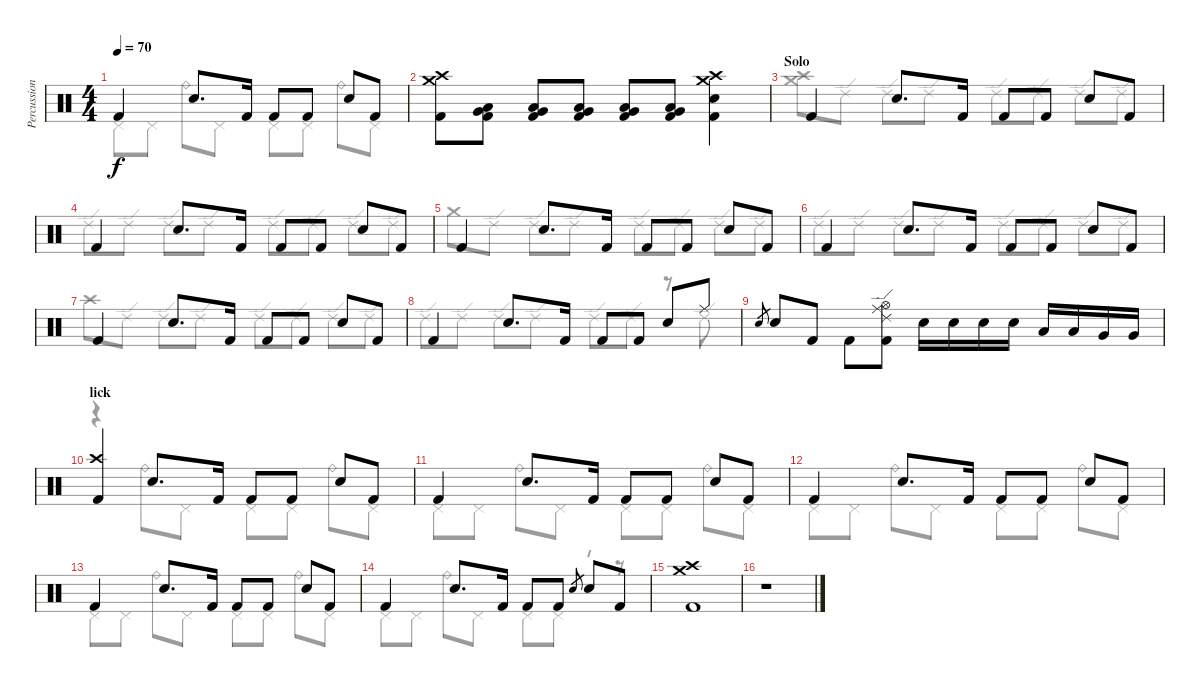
\track ("Percussion" "Percussion") {instrument percussion}
\staff {score}
\articulation defaults
\voice
\ts (4 4)
\tempo 70
\clef neutral
\ks c "Kick (hit) 2".4{dy f} "Snare (hit) 2".8{d} "Kick (hit) 2".16 "Kick (hit) 2".8 "Kick (hit) 2".8 "Snare (hit) 2".8 "Kick (hit) 2".8
|
("Crash high (hit)" "Crash medium (hit)" "Kick (hit) 2").8 ("Kick (hit) 2" "Low Tom (hit)" "Very Low Tom (hit)").8 ("Kick (hit) 2" "Low Tom (hit)" "Very Low Tom (hit)").8 ("Kick (hit) 2" "Low Tom (hit)" "Very Low Tom (hit)").8 ("Kick (hit) 2" "Low Tom (hit)" "Very Low Tom (hit)").8 ("Kick (hit) 2" "Low Tom (hit)" "Very Low Tom (hit)").8 ("Crash high (hit)" "Crash medium (hit)" "Kick (hit) 2" "Snare (hit) 2").4 |
\section ("" "Solo")
"Kick (hit) 2".4 "Snare (hit) 2".8{d} "Kick (hit) 2".16 "Kick (hit) 2".8 "Kick (hit) 2".8 "Snare (hit) 2".8 "Kick (hit) 2".8 |
"Kick (hit) 2".4 "Snare (hit) 2".8{d} "Kick (hit) 2".16 "Kick (hit) 2".8 "Kick (hit) 2".8 "Snare (hit) 2".8 "Kick (hit) 2".8 |
"Kick (hit) 2".4 "Snare (hit) 2".8{d} "Kick (hit) 2".16 "Kick (hit) 2".8 "Kick (hit) 2".8 "Snare (hit) 2".8 "Kick (hit) 2".8 |
"Kick (hit) 2".4 "Snare (hit) 2".8{d} "Kick (hit) 2".16 "Kick (hit) 2".8 "Kick (hit) 2".8 "Snare (hit) 2".8 "Kick (hit) 2".8 |
"Kick (hit) 2".4 "Snare (hit) 2".8{d} "Kick (hit) 2".16 "Kick (hit) 2".8 "Kick (hit) 2".8 "Snare (hit) 2".8 "Kick (hit) 2".8 |
"Kick (hit) 2".4 "Snare (hit) 2".8{d} "Kick (hit) 2".16 "Kick (hit) 2".8 "Kick (hit) 2".8 "Snare (hit) 2".8 "Ride (middle)".8 |
"Snare (hit) 2".8{gr} "Snare (hit) 2".8 "Kick (hit) 2".8 "Kick (hit) 2".8 ("Kick (hit) 2" "Ride (edge) 2" "Ride (middle)" "Hi-Hat (open)").8 "Snare (hit) 2".16 "Snare (hit) 2".16 "Snare (hit) 2".16 "Snare (hit) 2".16 "Low Tom (hit)".16 "Low Tom (hit)".16 "Very Low Tom (hit)".16 "Very Low Tom (hit)".16 |
\section ("" "lick")
("Crash high (hit)" "Kick (hit) 2").4 "Snare (hit) 2".8{d} "Kick (hit) 2".16 "Kick (hit) 2".8 "Kick (hit) 2".8 "Snare (hit) 2".8 "Kick (hit) 2".8 |
"Kick (hit) 2".4 "Snare (hit) 2".8{d} "Kick (hit) 2".16 "Kick (hit) 2".8 "Kick (hit) 2".8 "Snare (hit) 2".8 "Kick (hit) 2".8 |
"Kick (hit) 2".4 "Snare (hit) 2".8{d} "Kick (hit) 2".16 "Kick (hit) 2".8 "Kick (hit) 2".8 "Snare (hit) 2".8 "Kick (hit) 2".8 |
"Kick (hit) 2".4 "Snare (hit) 2".8{d} "Kick (hit) 2".16 "Kick (hit) 2".8 "Kick (hit) 2".8 "Snare (hit) 2".8 "Kick (hit) 2".8 |
"Kick (hit) 2".4 "Snare (hit) 2".8{d} "Kick (hit) 2".16 "Kick (hit) 2".8 "Kick (hit) 2".8 "Snare (hit) 2".8{gr} "Snare (hit) 2".8 "Kick (hit) 2".8 |
("Crash high (hit)" "Kick (hit) 2" "Crash medium (hit)").1 |
r.1
\voice
\clef neutral
\ottava regular
\simile none
\ks c "Pedal Hi-Hat (hit)".8{dy f} "Pedal Hi-Hat (hit)".8 "Ride (bell)".8 "Pedal Hi-Hat (hit)".8 "Pedal Hi-Hat (hit)".8 "Pedal Hi-Hat (hit)".8 "Ride (bell)".8 "Pedal Hi-Hat (hit)".8
|
|
("Crash high (hit)" "Crash medium (hit)").8 "Ride (edge) 2".8 "Ride (edge) 2".8 "Ride (edge) 2".8 "Ride (edge) 2".8 "Ride (edge) 2".8 "Ride (edge) 2".8 "Ride (edge) 2".8 |
"Ride (edge) 2".8 "Ride (edge) 2".8 "Ride (edge) 2".8 "Ride (edge) 2".8 "Ride (edge) 2".8 "Ride (edge) 2".8 "Ride (edge) 2".8 "Ride (edge) 2".8 |
"Crash medium (hit)".8 "Ride (edge) 2".8 "Ride (edge) 2".8 "Ride (edge) 2".8 "Ride (edge) 2".8 "Ride (edge) 2".8 "Ride (edge) 2".8 "Ride (edge) 2".8 |
"Ride (edge) 2".8 "Ride (edge) 2".8 "Ride (edge) 2".8 "Ride (edge) 2".8 "Ride (edge) 2".8 "Ride (edge) 2".8 "Ride (edge) 2".8 "Ride (edge) 2".8 |
"Crash high (hit)".8 "Ride (edge) 2".8 "Ride (edge) 2".8 "Ride (edge) 2".8 "Ride (edge) 2".8 "Ride (edge) 2".8 "Ride (edge) 2".8 "Ride (edge) 2".8 |
"Ride (edge) 2".8 "Ride (edge) 2".8 "Ride (edge) 2".8 "Ride (edge) 2".8 "Ride (edge) 2".8 "Ride (edge) 2".8 r.8 "Ride (edge) 2".8 |
|
r.4 "Ride (bell)".8 "Pedal Hi-Hat (hit)".8 "Pedal Hi-Hat (hit)".8 "Pedal Hi-Hat (hit)".8 "Ride (bell)".8 "Pedal Hi-Hat (hit)".8 |
"Pedal Hi-Hat (hit)".8 "Pedal Hi-Hat (hit)".8 "Ride (bell)".8 "Pedal Hi-Hat (hit)".8 "Pedal Hi-Hat (hit)".8 "Pedal Hi-Hat (hit)".8 "Ride (bell)".8 "Pedal Hi-Hat (hit)".8 |
"Pedal Hi-Hat (hit)".8 "Pedal Hi-Hat (hit)".8 "Ride (bell)".8 "Pedal Hi-Hat (hit)".8 "Pedal Hi-Hat (hit)".8 "Pedal Hi-Hat (hit)".8 "Ride (bell)".8 "Pedal Hi-Hat (hit)".8 |
"Pedal Hi-Hat (hit)".8 "Pedal Hi-Hat (hit)".8 "Ride (bell)".8 "Pedal Hi-Hat (hit)".8 "Pedal Hi-Hat (hit)".8 "Pedal Hi-Hat (hit)".8 "Ride (bell)".8 "Pedal Hi-Hat (hit)".8 |
"Pedal Hi-Hat (hit)".8 "Pedal Hi-Hat (hit)".8 "Ride (bell)".8 "Pedal Hi-Hat (hit)".8 "Pedal Hi-Hat (hit)".8 "Pedal Hi-Hat (hit)".8 r.8 r.8 |
|
